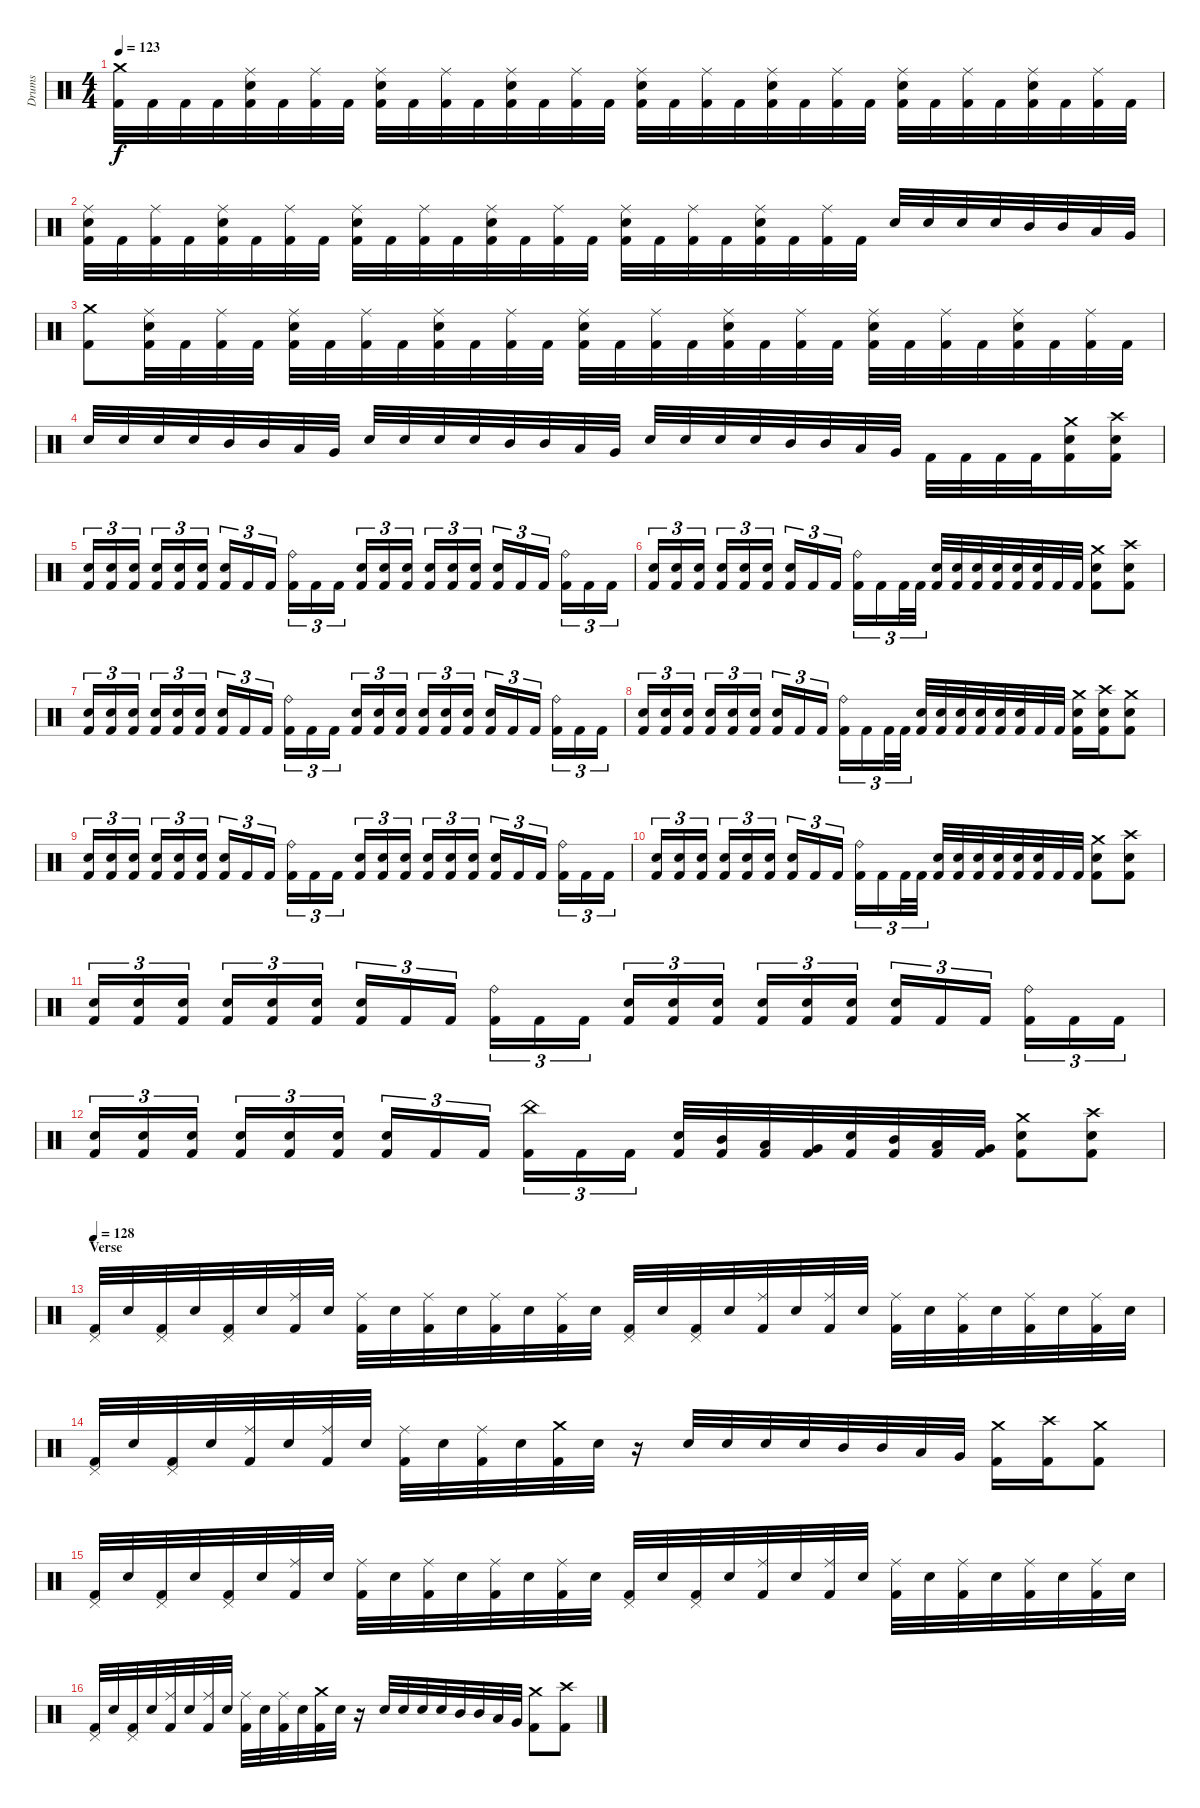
\track ("Drums" "Drums") {instrument percussion}
\staff {score}
\articulation defaults
\ts (4 4)
\section ("" "")
\tempo 123
\clef neutral
\ks c
("Crash medium (hit)" "Kick (hit) 2").32{dy f} "Kick (hit) 2".32 "Kick (hit) 2".32 "Kick (hit) 2".32 ("Ride (middle)" "Electric Snare (hit)" "Kick (hit) 2").32 "Kick (hit) 2".32 ("Ride (middle)" "Kick (hit) 2").32 "Kick (hit) 2".32 ("Ride (middle)" "Electric Snare (hit)" "Kick (hit) 2").32 "Kick (hit) 2".32 ("Ride (middle)" "Kick (hit) 2").32 "Kick (hit) 2".32 ("Ride (middle)" "Electric Snare (hit)" "Kick (hit) 2").32 "Kick (hit) 2".32 ("Ride (middle)" "Kick (hit) 2").32 "Kick (hit) 2".32 ("Ride (middle)" "Electric Snare (hit)" "Kick (hit) 2").32 "Kick (hit) 2".32 ("Ride (middle)" "Kick (hit) 2").32 "Kick (hit) 2".32 ("Ride (middle)" "Electric Snare (hit)" "Kick (hit) 2").32 "Kick (hit) 2".32 ("Ride (middle)" "Kick (hit) 2").32 "Kick (hit) 2".32 ("Ride (middle)" "Electric Snare (hit)" "Kick (hit) 2").32 "Kick (hit) 2".32 ("Ride (middle)" "Kick (hit) 2").32 "Kick (hit) 2".32 ("Ride (middle)" "Electric Snare (hit)" "Kick (hit) 2").32 "Kick (hit) 2".32 ("Ride (middle)" "Kick (hit) 2").32 "Kick (hit) 2".32 |
("Ride (middle)" "Electric Snare (hit)" "Kick (hit) 2").32 "Kick (hit) 2".32 ("Ride (middle)" "Kick (hit) 2").32 "Kick (hit) 2".32 ("Ride (middle)" "Electric Snare (hit)" "Kick (hit) 2").32 "Kick (hit) 2".32 ("Ride (middle)" "Kick (hit) 2").32 "Kick (hit) 2".32 ("Ride (middle)" "Electric Snare (hit)" "Kick (hit) 2").32 "Kick (hit) 2".32 ("Ride (middle)" "Kick (hit) 2").32 "Kick (hit) 2".32 ("Ride (middle)" "Electric Snare (hit)" "Kick (hit) 2").32 "Kick (hit) 2".32 ("Ride (middle)" "Kick (hit) 2").32 "Kick (hit) 2".32 ("Ride (middle)" "Electric Snare (hit)" "Kick (hit) 2").32 "Kick (hit) 2".32 ("Ride (middle)" "Kick (hit) 2").32 "Kick (hit) 2".32 ("Ride (middle)" "Electric Snare (hit)" "Kick (hit) 2").32 "Kick (hit) 2".32 ("Ride (middle)" "Kick (hit) 2").32 "Kick (hit) 2".32 "Electric Snare (hit)".32 "Electric Snare (hit)".32 "Electric Snare (hit)".32 "Electric Snare (hit)".32 "Mid Tom (hit)".32 "Mid Tom (hit)".32 "Low Tom (hit)".32 "Very Low Tom (hit)".32 |
("Crash medium (hit)" "Kick (hit) 2").8 ("Ride (middle)" "Electric Snare (hit)" "Kick (hit) 2").32 "Kick (hit) 2".32 ("Ride (middle)" "Kick (hit) 2").32 "Kick (hit) 2".32 ("Ride (middle)" "Electric Snare (hit)" "Kick (hit) 2").32 "Kick (hit) 2".32 ("Ride (middle)" "Kick (hit) 2").32 "Kick (hit) 2".32 ("Ride (middle)" "Electric Snare (hit)" "Kick (hit) 2").32 "Kick (hit) 2".32 ("Ride (middle)" "Kick (hit) 2").32 "Kick (hit) 2".32 ("Ride (middle)" "Electric Snare (hit)" "Kick (hit) 2").32 "Kick (hit) 2".32 ("Ride (middle)" "Kick (hit) 2").32 "Kick (hit) 2".32 ("Ride (middle)" "Electric Snare (hit)" "Kick (hit) 2").32 "Kick (hit) 2".32 ("Ride (middle)" "Kick (hit) 2").32 "Kick (hit) 2".32 ("Ride (middle)" "Electric Snare (hit)" "Kick (hit) 2").32 "Kick (hit) 2".32 ("Ride (middle)" "Kick (hit) 2").32 "Kick (hit) 2".32 ("Ride (middle)" "Electric Snare (hit)" "Kick (hit) 2").32 "Kick (hit) 2".32 ("Ride (middle)" "Kick (hit) 2").32 "Kick (hit) 2".32 |
"Electric Snare (hit)".32 "Electric Snare (hit)".32 "Electric Snare (hit)".32 "Electric Snare (hit)".32 "Mid Tom (hit)".32 "Mid Tom (hit)".32 "Low Tom (hit)".32 "Very Low Tom (hit)".32 "Electric Snare (hit)".32 "Electric Snare (hit)".32 "Electric Snare (hit)".32 "Electric Snare (hit)".32 "Mid Tom (hit)".32 "Mid Tom (hit)".32 "Low Tom (hit)".32 "Very Low Tom (hit)".32 "Electric Snare (hit)".32 "Electric Snare (hit)".32 "Electric Snare (hit)".32 "Electric Snare (hit)".32 "Mid Tom (hit)".32 "Mid Tom (hit)".32 "Low Tom (hit)".32 "Very Low Tom (hit)".32 "Kick (hit) 2".32 "Kick (hit) 2".32 "Kick (hit) 2".32 "Kick (hit) 2".32 ("Crash medium (hit)" "Electric Snare (hit)" "Kick (hit) 2").16 ("Crash high (hit)" "Electric Snare (hit)" "Kick (hit) 2").16 |
\section ("" "")
("Electric Snare (hit)" "Kick (hit) 2").16{tu (3 2)} ("Electric Snare (hit)" "Kick (hit) 2").16{tu (3 2)} ("Electric Snare (hit)" "Kick (hit) 2").16{tu (3 2)} ("Electric Snare (hit)" "Kick (hit) 2").16{tu (3 2)} ("Electric Snare (hit)" "Kick (hit) 2").16{tu (3 2)} ("Electric Snare (hit)" "Kick (hit) 2").16{tu (3 2)} ("Electric Snare (hit)" "Kick (hit) 2").16{tu (3 2)} "Kick (hit) 2".16{tu (3 2)} "Kick (hit) 2".16{tu (3 2)} ("Ride (bell)" "Kick (hit) 2").16{tu (3 2)} "Kick (hit) 2".16{tu (3 2)} "Kick (hit) 2".16{tu (3 2)} ("Electric Snare (hit)" "Kick (hit) 2").16{tu (3 2)} ("Electric Snare (hit)" "Kick (hit) 2").16{tu (3 2)} ("Electric Snare (hit)" "Kick (hit) 2").16{tu (3 2)} ("Electric Snare (hit)" "Kick (hit) 2").16{tu (3 2)} ("Electric Snare (hit)" "Kick (hit) 2").16{tu (3 2)} ("Electric Snare (hit)" "Kick (hit) 2").16{tu (3 2)} ("Electric Snare (hit)" "Kick (hit) 2").16{tu (3 2)} "Kick (hit) 2".16{tu (3 2)} "Kick (hit) 2".16{tu (3 2)} ("Ride (bell)" "Kick (hit) 2").16{tu (3 2)} "Kick (hit) 2".16{tu (3 2)} "Kick (hit) 2".16{tu (3 2)} |
("Electric Snare (hit)" "Kick (hit) 2").16{tu (3 2)} ("Electric Snare (hit)" "Kick (hit) 2").16{tu (3 2)} ("Electric Snare (hit)" "Kick (hit) 2").16{tu (3 2)} ("Electric Snare (hit)" "Kick (hit) 2").16{tu (3 2)} ("Electric Snare (hit)" "Kick (hit) 2").16{tu (3 2)} ("Electric Snare (hit)" "Kick (hit) 2").16{tu (3 2)} ("Electric Snare (hit)" "Kick (hit) 2").16{tu (3 2)} "Kick (hit) 2".16{tu (3 2)} "Kick (hit) 2".16{tu (3 2)} ("Ride (bell)" "Kick (hit) 2").16{tu (3 2)} "Kick (hit) 2".16{tu (3 2)} "Kick (hit) 2".32{tu (3 2)} "Kick (hit) 2".32{tu (3 2)} ("Electric Snare (hit)" "Kick (hit) 2").32 ("Electric Snare (hit)" "Kick (hit) 2").32 ("Electric Snare (hit)" "Kick (hit) 2").32 ("Electric Snare (hit)" "Kick (hit) 2").32 ("Electric Snare (hit)" "Kick (hit) 2").32 ("Electric Snare (hit)" "Kick (hit) 2").32 "Kick (hit) 2".32 "Kick (hit) 2".32 ("Crash medium (hit)" "Electric Snare (hit)" "Kick (hit) 2").8 ("Crash high (hit)" "Electric Snare (hit)" "Kick (hit) 2").8 |
("Electric Snare (hit)" "Kick (hit) 2").16{tu (3 2)} ("Electric Snare (hit)" "Kick (hit) 2").16{tu (3 2)} ("Electric Snare (hit)" "Kick (hit) 2").16{tu (3 2)} ("Electric Snare (hit)" "Kick (hit) 2").16{tu (3 2)} ("Electric Snare (hit)" "Kick (hit) 2").16{tu (3 2)} ("Electric Snare (hit)" "Kick (hit) 2").16{tu (3 2)} ("Electric Snare (hit)" "Kick (hit) 2").16{tu (3 2)} "Kick (hit) 2".16{tu (3 2)} "Kick (hit) 2".16{tu (3 2)} ("Ride (bell)" "Kick (hit) 2").16{tu (3 2)} "Kick (hit) 2".16{tu (3 2)} "Kick (hit) 2".16{tu (3 2)} ("Electric Snare (hit)" "Kick (hit) 2").16{tu (3 2)} ("Electric Snare (hit)" "Kick (hit) 2").16{tu (3 2)} ("Electric Snare (hit)" "Kick (hit) 2").16{tu (3 2)} ("Electric Snare (hit)" "Kick (hit) 2").16{tu (3 2)} ("Electric Snare (hit)" "Kick (hit) 2").16{tu (3 2)} ("Electric Snare (hit)" "Kick (hit) 2").16{tu (3 2)} ("Electric Snare (hit)" "Kick (hit) 2").16{tu (3 2)} "Kick (hit) 2".16{tu (3 2)} "Kick (hit) 2".16{tu (3 2)} ("Ride (bell)" "Kick (hit) 2").16{tu (3 2)} "Kick (hit) 2".16{tu (3 2)} "Kick (hit) 2".16{tu (3 2)} |
("Electric Snare (hit)" "Kick (hit) 2").16{tu (3 2)} ("Electric Snare (hit)" "Kick (hit) 2").16{tu (3 2)} ("Electric Snare (hit)" "Kick (hit) 2").16{tu (3 2)} ("Electric Snare (hit)" "Kick (hit) 2").16{tu (3 2)} ("Electric Snare (hit)" "Kick (hit) 2").16{tu (3 2)} ("Electric Snare (hit)" "Kick (hit) 2").16{tu (3 2)} ("Electric Snare (hit)" "Kick (hit) 2").16{tu (3 2)} "Kick (hit) 2".16{tu (3 2)} "Kick (hit) 2".16{tu (3 2)} ("Ride (bell)" "Kick (hit) 2").16{tu (3 2)} "Kick (hit) 2".16{tu (3 2)} "Kick (hit) 2".32{tu (3 2)} "Kick (hit) 2".32{tu (3 2)} ("Electric Snare (hit)" "Kick (hit) 2").32 ("Electric Snare (hit)" "Kick (hit) 2").32 ("Electric Snare (hit)" "Kick (hit) 2").32 ("Electric Snare (hit)" "Kick (hit) 2").32 ("Electric Snare (hit)" "Kick (hit) 2").32 ("Electric Snare (hit)" "Kick (hit) 2").32 "Kick (hit) 2".32 "Kick (hit) 2".32 ("Crash medium (hit)" "Electric Snare (hit)" "Kick (hit) 2").16 ("Crash high (hit)" "Electric Snare (hit)" "Kick (hit) 2").16 ("Crash medium (hit)" "Electric Snare (hit)" "Kick (hit) 2").8 |
("Electric Snare (hit)" "Kick (hit) 2").16{tu (3 2)} ("Electric Snare (hit)" "Kick (hit) 2").16{tu (3 2)} ("Electric Snare (hit)" "Kick (hit) 2").16{tu (3 2)} ("Electric Snare (hit)" "Kick (hit) 2").16{tu (3 2)} ("Electric Snare (hit)" "Kick (hit) 2").16{tu (3 2)} ("Electric Snare (hit)" "Kick (hit) 2").16{tu (3 2)} ("Electric Snare (hit)" "Kick (hit) 2").16{tu (3 2)} "Kick (hit) 2".16{tu (3 2)} "Kick (hit) 2".16{tu (3 2)} ("Ride (bell)" "Kick (hit) 2").16{tu (3 2)} "Kick (hit) 2".16{tu (3 2)} "Kick (hit) 2".16{tu (3 2)} ("Electric Snare (hit)" "Kick (hit) 2").16{tu (3 2)} ("Electric Snare (hit)" "Kick (hit) 2").16{tu (3 2)} ("Electric Snare (hit)" "Kick (hit) 2").16{tu (3 2)} ("Electric Snare (hit)" "Kick (hit) 2").16{tu (3 2)} ("Electric Snare (hit)" "Kick (hit) 2").16{tu (3 2)} ("Electric Snare (hit)" "Kick (hit) 2").16{tu (3 2)} ("Electric Snare (hit)" "Kick (hit) 2").16{tu (3 2)} "Kick (hit) 2".16{tu (3 2)} "Kick (hit) 2".16{tu (3 2)} ("Ride (bell)" "Kick (hit) 2").16{tu (3 2)} "Kick (hit) 2".16{tu (3 2)} "Kick (hit) 2".16{tu (3 2)} |
("Electric Snare (hit)" "Kick (hit) 2").16{tu (3 2)} ("Electric Snare (hit)" "Kick (hit) 2").16{tu (3 2)} ("Electric Snare (hit)" "Kick (hit) 2").16{tu (3 2)} ("Electric Snare (hit)" "Kick (hit) 2").16{tu (3 2)} ("Electric Snare (hit)" "Kick (hit) 2").16{tu (3 2)} ("Electric Snare (hit)" "Kick (hit) 2").16{tu (3 2)} ("Electric Snare (hit)" "Kick (hit) 2").16{tu (3 2)} "Kick (hit) 2".16{tu (3 2)} "Kick (hit) 2".16{tu (3 2)} ("Ride (bell)" "Kick (hit) 2").16{tu (3 2)} "Kick (hit) 2".16{tu (3 2)} "Kick (hit) 2".32{tu (3 2)} "Kick (hit) 2".32{tu (3 2)} ("Electric Snare (hit)" "Kick (hit) 2").32 ("Electric Snare (hit)" "Kick (hit) 2").32 ("Electric Snare (hit)" "Kick (hit) 2").32 ("Electric Snare (hit)" "Kick (hit) 2").32 ("Electric Snare (hit)" "Kick (hit) 2").32 ("Electric Snare (hit)" "Kick (hit) 2").32 "Kick (hit) 2".32 "Kick (hit) 2".32 ("Crash medium (hit)" "Electric Snare (hit)" "Kick (hit) 2").8 ("Crash high (hit)" "Electric Snare (hit)" "Kick (hit) 2").8 |
("Electric Snare (hit)" "Kick (hit) 2").16{tu (3 2)} ("Electric Snare (hit)" "Kick (hit) 2").16{tu (3 2)} ("Electric Snare (hit)" "Kick (hit) 2").16{tu (3 2)} ("Electric Snare (hit)" "Kick (hit) 2").16{tu (3 2)} ("Electric Snare (hit)" "Kick (hit) 2").16{tu (3 2)} ("Electric Snare (hit)" "Kick (hit) 2").16{tu (3 2)} ("Electric Snare (hit)" "Kick (hit) 2").16{tu (3 2)} "Kick (hit) 2".16{tu (3 2)} "Kick (hit) 2".16{tu (3 2)} ("Ride (bell)" "Kick (hit) 2").16{tu (3 2)} "Kick (hit) 2".16{tu (3 2)} "Kick (hit) 2".16{tu (3 2)} ("Electric Snare (hit)" "Kick (hit) 2").16{tu (3 2)} ("Electric Snare (hit)" "Kick (hit) 2").16{tu (3 2)} ("Electric Snare (hit)" "Kick (hit) 2").16{tu (3 2)} ("Electric Snare (hit)" "Kick (hit) 2").16{tu (3 2)} ("Electric Snare (hit)" "Kick (hit) 2").16{tu (3 2)} ("Electric Snare (hit)" "Kick (hit) 2").16{tu (3 2)} ("Electric Snare (hit)" "Kick (hit) 2").16{tu (3 2)} "Kick (hit) 2".16{tu (3 2)} "Kick (hit) 2".16{tu (3 2)} ("Ride (bell)" "Kick (hit) 2").16{tu (3 2)} "Kick (hit) 2".16{tu (3 2)} "Kick (hit) 2".16{tu (3 2)} |
("Electric Snare (hit)" "Kick (hit) 2").16{tu (3 2)} ("Electric Snare (hit)" "Kick (hit) 2").16{tu (3 2)} ("Electric Snare (hit)" "Kick (hit) 2").16{tu (3 2)} ("Electric Snare (hit)" "Kick (hit) 2").16{tu (3 2)} ("Electric Snare (hit)" "Kick (hit) 2").16{tu (3 2)} ("Electric Snare (hit)" "Kick (hit) 2").16{tu (3 2)} ("Electric Snare (hit)" "Kick (hit) 2").16{tu (3 2)} "Kick (hit) 2".16{tu (3 2)} "Kick (hit) 2".16{tu (3 2)} ("China (hit)" "Kick (hit) 2").16{tu (3 2)} "Kick (hit) 2".16{tu (3 2)} "Kick (hit) 2".16{tu (3 2)} ("Electric Snare (hit)" "Kick (hit) 2").32 ("Mid Tom (hit)" "Kick (hit) 2").32 ("Low Tom (hit)" "Kick (hit) 2").32 ("Very Low Tom (hit)" "Kick (hit) 2").32 ("Electric Snare (hit)" "Kick (hit) 2").32 ("Mid Tom (hit)" "Kick (hit) 2").32 ("Low Tom (hit)" "Kick (hit) 2").32 ("Very Low Tom (hit)" "Kick (hit) 2").32 ("Crash medium (hit)" "Electric Snare (hit)" "Kick (hit) 2").8 ("Crash high (hit)" "Electric Snare (hit)" "Kick (hit) 2").8 |
\section ("" "Verse")
\tempo 128
("Pedal Hi-Hat (hit)" "Kick (hit) 2").32 "Electric Snare (hit)".32 ("Pedal Hi-Hat (hit)" "Kick (hit) 2").32 "Electric Snare (hit)".32 ("Pedal Hi-Hat (hit)" "Kick (hit) 2").32 "Electric Snare (hit)".32 ("Ride (middle)" "Kick (hit) 2").32 "Electric Snare (hit)".32 ("Ride (middle)" "Kick (hit) 2").32 "Electric Snare (hit)".32 ("Ride (middle)" "Kick (hit) 2").32 "Electric Snare (hit)".32 ("Ride (middle)" "Kick (hit) 2").32 "Electric Snare (hit)".32 ("Ride (middle)" "Kick (hit) 2").32 "Electric Snare (hit)".32 ("Pedal Hi-Hat (hit)" "Kick (hit) 2").32 "Electric Snare (hit)".32 ("Pedal Hi-Hat (hit)" "Kick (hit) 2").32 "Electric Snare (hit)".32 ("Ride (middle)" "Kick (hit) 2").32 "Electric Snare (hit)".32 ("Ride (middle)" "Kick (hit) 2").32 "Electric Snare (hit)".32 ("Ride (middle)" "Kick (hit) 2").32 "Electric Snare (hit)".32 ("Ride (middle)" "Kick (hit) 2").32 "Electric Snare (hit)".32 ("Ride (middle)" "Kick (hit) 2").32 "Electric Snare (hit)".32 ("Ride (middle)" "Kick (hit) 2").32 "Electric Snare (hit)".32 |
("Pedal Hi-Hat (hit)" "Kick (hit) 2").32 "Electric Snare (hit)".32 ("Pedal Hi-Hat (hit)" "Kick (hit) 2").32 "Electric Snare (hit)".32 ("Ride (middle)" "Kick (hit) 2").32 "Electric Snare (hit)".32 ("Ride (middle)" "Kick (hit) 2").32 "Electric Snare (hit)".32 ("Ride (middle)" "Kick (hit) 2").32 "Electric Snare (hit)".32 ("Ride (middle)" "Kick (hit) 2").32 "Electric Snare (hit)".32 ("Crash medium (hit)" "Kick (hit) 2").32 "Electric Snare (hit)".32 r.16 "Electric Snare (hit)".32 "Electric Snare (hit)".32 "Electric Snare (hit)".32 "Electric Snare (hit)".32 "Mid Tom (hit)".32 "Mid Tom (hit)".32 "Low Tom (hit)".32 "Very Low Tom (hit)".32 ("Crash medium (hit)" "Kick (hit) 2").16 ("Crash high (hit)" "Kick (hit) 2").16 ("Crash medium (hit)" "Kick (hit) 2").8 |
("Pedal Hi-Hat (hit)" "Kick (hit) 2").32 "Electric Snare (hit)".32 ("Pedal Hi-Hat (hit)" "Kick (hit) 2").32 "Electric Snare (hit)".32 ("Pedal Hi-Hat (hit)" "Kick (hit) 2").32 "Electric Snare (hit)".32 ("Ride (middle)" "Kick (hit) 2").32 "Electric Snare (hit)".32 ("Ride (middle)" "Kick (hit) 2").32 "Electric Snare (hit)".32 ("Ride (middle)" "Kick (hit) 2").32 "Electric Snare (hit)".32 ("Ride (middle)" "Kick (hit) 2").32 "Electric Snare (hit)".32 ("Ride (middle)" "Kick (hit) 2").32 "Electric Snare (hit)".32 ("Pedal Hi-Hat (hit)" "Kick (hit) 2").32 "Electric Snare (hit)".32 ("Pedal Hi-Hat (hit)" "Kick (hit) 2").32 "Electric Snare (hit)".32 ("Ride (middle)" "Kick (hit) 2").32 "Electric Snare (hit)".32 ("Ride (middle)" "Kick (hit) 2").32 "Electric Snare (hit)".32 ("Ride (middle)" "Kick (hit) 2").32 "Electric Snare (hit)".32 ("Ride (middle)" "Kick (hit) 2").32 "Electric Snare (hit)".32 ("Ride (middle)" "Kick (hit) 2").32 "Electric Snare (hit)".32 ("Ride (middle)" "Kick (hit) 2").32 "Electric Snare (hit)".32 |
("Pedal Hi-Hat (hit)" "Kick (hit) 2").32 "Electric Snare (hit)".32 ("Pedal Hi-Hat (hit)" "Kick (hit) 2").32 "Electric Snare (hit)".32 ("Ride (middle)" "Kick (hit) 2").32 "Electric Snare (hit)".32 ("Ride (middle)" "Kick (hit) 2").32 "Electric Snare (hit)".32 ("Ride (middle)" "Kick (hit) 2").32 "Electric Snare (hit)".32 ("Ride (middle)" "Kick (hit) 2").32 "Electric Snare (hit)".32 ("Crash medium (hit)" "Kick (hit) 2").32 "Electric Snare (hit)".32 r.16 "Electric Snare (hit)".32 "Electric Snare (hit)".32 "Electric Snare (hit)".32 "Electric Snare (hit)".32 "Mid Tom (hit)".32 "Mid Tom (hit)".32 "Low Tom (hit)".32 "Very Low Tom (hit)".32 ("Crash medium (hit)" "Kick (hit) 2").8 ("Crash high (hit)" "Kick (hit) 2").8
